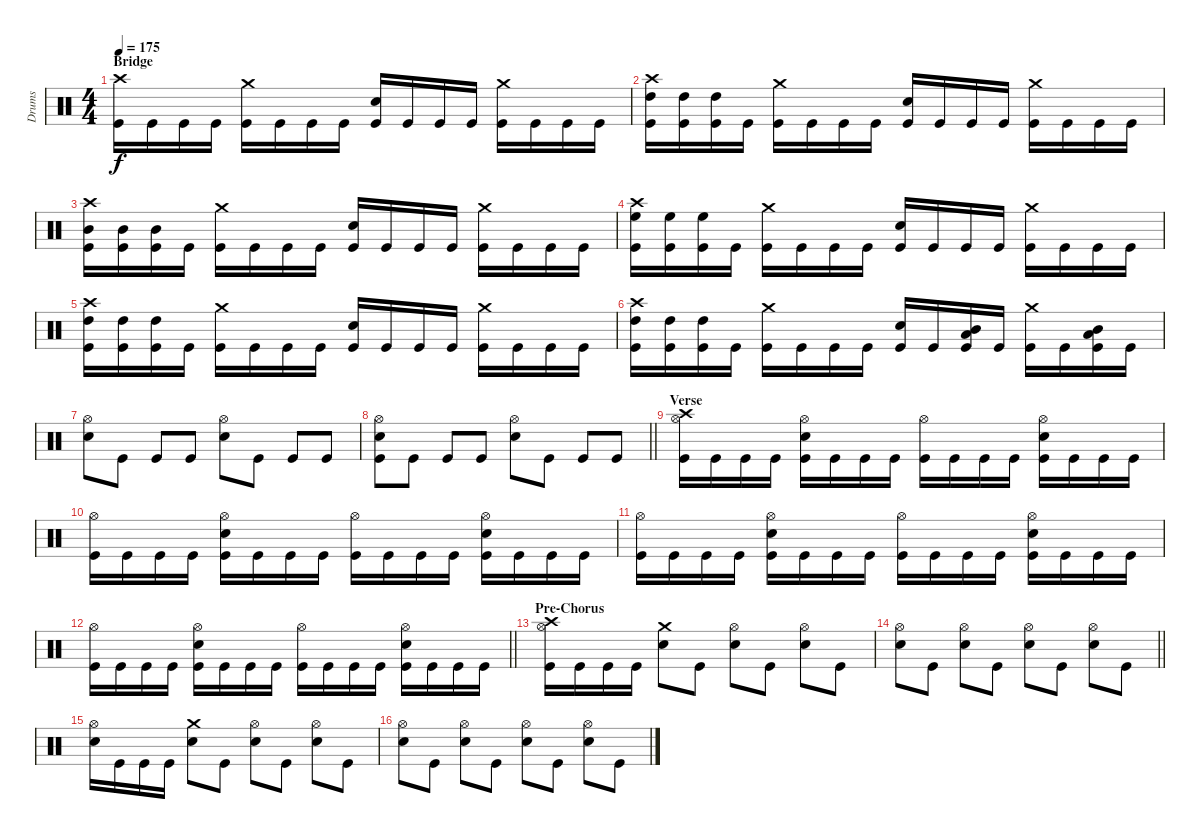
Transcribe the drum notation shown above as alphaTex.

\track ("Drums" "Drums") {instrument percussion}
\staff {score}
\articulation defaults
\ts (4 4)
\section ("" "Bridge")
\tempo 175
\clef neutral
\ks c
("Crash high (hit)" "Kick (hit)").16{dy f} "Kick (hit)".16 "Kick (hit)".16 "Kick (hit)".16 ("Crash medium (hit)" "Kick (hit)").16 "Kick (hit)".16 "Kick (hit)".16 "Kick (hit)".16 ("Electric Snare (hit)" "Kick (hit)").16 "Kick (hit)".16 "Kick (hit)".16 "Kick (hit)".16 ("Crash medium (hit)" "Kick (hit)").16 "Kick (hit)".16 "Kick (hit)".16 "Kick (hit)".16 |
("Crash high (hit)" "High Tom (hit)" "Kick (hit)").16 ("High Tom (hit)" "Kick (hit)").16 ("High Tom (hit)" "Kick (hit)").16 "Kick (hit)".16 ("Crash medium (hit)" "Kick (hit)").16 "Kick (hit)".16 "Kick (hit)".16 "Kick (hit)".16 ("Electric Snare (hit)" "Kick (hit)").16 "Kick (hit)".16 "Kick (hit)".16 "Kick (hit)".16 ("Crash medium (hit)" "Kick (hit)").16 "Kick (hit)".16 "Kick (hit)".16 "Kick (hit)".16 |
("Crash high (hit)" "Mid Tom (hit)" "Kick (hit)").16 ("Mid Tom (hit)" "Kick (hit)").16 ("Mid Tom (hit)" "Kick (hit)").16 "Kick (hit)".16 ("Crash medium (hit)" "Kick (hit)").16 "Kick (hit)".16 "Kick (hit)".16 "Kick (hit)".16 ("Electric Snare (hit)" "Kick (hit)").16 "Kick (hit)".16 "Kick (hit)".16 "Kick (hit)".16 ("Crash medium (hit)" "Kick (hit)").16 "Kick (hit)".16 "Kick (hit)".16 "Kick (hit)".16 |
("Crash high (hit)" "High Floor Tom (hit)" "Kick (hit)").16 ("High Floor Tom (hit)" "Kick (hit)").16 ("High Floor Tom (hit)" "Kick (hit)").16 "Kick (hit)".16 ("Crash medium (hit)" "Kick (hit)").16 "Kick (hit)".16 "Kick (hit)".16 "Kick (hit)".16 ("Electric Snare (hit)" "Kick (hit)").16 "Kick (hit)".16 "Kick (hit)".16 "Kick (hit)".16 ("Crash medium (hit)" "Kick (hit)").16 "Kick (hit)".16 "Kick (hit)".16 "Kick (hit)".16 |
("Crash high (hit)" "High Tom (hit)" "Kick (hit)").16 ("High Tom (hit)" "Kick (hit)").16 ("High Tom (hit)" "Kick (hit)").16 "Kick (hit)".16 ("Crash medium (hit)" "Kick (hit)").16 "Kick (hit)".16 "Kick (hit)".16 "Kick (hit)".16 ("Electric Snare (hit)" "Kick (hit)").16 "Kick (hit)".16 "Kick (hit)".16 "Kick (hit)".16 ("Crash medium (hit)" "Kick (hit)").16 "Kick (hit)".16 "Kick (hit)".16 "Kick (hit)".16 |
("Crash high (hit)" "High Tom (hit)" "Kick (hit)").16 ("High Tom (hit)" "Kick (hit)").16 ("High Tom (hit)" "Kick (hit)").16 "Kick (hit)".16 ("Crash medium (hit)" "Kick (hit)").16 "Kick (hit)".16 "Kick (hit)".16 "Kick (hit)".16 ("Electric Snare (hit)" "Kick (hit)").16 "Kick (hit)".16 ("Mid Tom (hit)" "Low Tom (hit)" "Kick (hit)").16 "Kick (hit)".16 ("Crash medium (hit)" "Kick (hit)").16 "Kick (hit)".16 ("Mid Tom (hit)" "Low Tom (hit)" "Kick (hit)").16 "Kick (hit)".16 |
("Hi-Hat (open)" "Electric Snare (hit)").8 "Kick (hit)".8 "Kick (hit)".8 "Kick (hit)".8 ("Hi-Hat (open)" "Electric Snare (hit)").8 "Kick (hit)".8 "Kick (hit)".8 "Kick (hit)".8 |
\barLineRight lightlight
("Hi-Hat (open)" "Electric Snare (hit)" "Kick (hit)").8 "Kick (hit)".8 "Kick (hit)".8 "Kick (hit)".8 ("Hi-Hat (open)" "Electric Snare (hit)").8 "Kick (hit)".8 "Kick (hit)".8 "Kick (hit)".8 |
\section ("" "Verse")
("Crash high (hit)" "Hi-Hat (open)" "Kick (hit)").16 "Kick (hit)".16 "Kick (hit)".16 "Kick (hit)".16 ("Hi-Hat (open)" "Electric Snare (hit)" "Kick (hit)").16 "Kick (hit)".16 "Kick (hit)".16 "Kick (hit)".16 ("Hi-Hat (open)" "Kick (hit)").16 "Kick (hit)".16 "Kick (hit)".16 "Kick (hit)".16 ("Hi-Hat (open)" "Electric Snare (hit)" "Kick (hit)").16 "Kick (hit)".16 "Kick (hit)".16 "Kick (hit)".16 |
("Hi-Hat (open)" "Kick (hit)").16 "Kick (hit)".16 "Kick (hit)".16 "Kick (hit)".16 ("Hi-Hat (open)" "Electric Snare (hit)" "Kick (hit)").16 "Kick (hit)".16 "Kick (hit)".16 "Kick (hit)".16 ("Hi-Hat (open)" "Kick (hit)").16 "Kick (hit)".16 "Kick (hit)".16 "Kick (hit)".16 ("Hi-Hat (open)" "Electric Snare (hit)" "Kick (hit)").16 "Kick (hit)".16 "Kick (hit)".16 "Kick (hit)".16 |
("Hi-Hat (open)" "Kick (hit)").16 "Kick (hit)".16 "Kick (hit)".16 "Kick (hit)".16 ("Hi-Hat (open)" "Electric Snare (hit)" "Kick (hit)").16 "Kick (hit)".16 "Kick (hit)".16 "Kick (hit)".16 ("Hi-Hat (open)" "Kick (hit)").16 "Kick (hit)".16 "Kick (hit)".16 "Kick (hit)".16 ("Hi-Hat (open)" "Electric Snare (hit)" "Kick (hit)").16 "Kick (hit)".16 "Kick (hit)".16 "Kick (hit)".16 |
\barLineRight lightlight
("Hi-Hat (open)" "Kick (hit)").16 "Kick (hit)".16 "Kick (hit)".16 "Kick (hit)".16 ("Hi-Hat (open)" "Electric Snare (hit)" "Kick (hit)").16 "Kick (hit)".16 "Kick (hit)".16 "Kick (hit)".16 ("Hi-Hat (open)" "Kick (hit)").16 "Kick (hit)".16 "Kick (hit)".16 "Kick (hit)".16 ("Hi-Hat (open)" "Electric Snare (hit)" "Kick (hit)").16 "Kick (hit)".16 "Kick (hit)".16 "Kick (hit)".16 |
\section ("" "Pre-Chorus")
("Crash high (hit)" "Hi-Hat (open)" "Kick (hit)").16 "Kick (hit)".16 "Kick (hit)".16 "Kick (hit)".16 ("Crash medium (hit)" "Electric Snare (hit)").8 "Kick (hit)".8 ("Hi-Hat (open)" "Electric Snare (hit)").8 "Kick (hit)".8 ("Hi-Hat (open)" "Electric Snare (hit)").8 "Kick (hit)".8 |
\barLineRight lightlight
("Hi-Hat (open)" "Electric Snare (hit)").8 "Kick (hit)".8 ("Hi-Hat (open)" "Electric Snare (hit)").8 "Kick (hit)".8 ("Hi-Hat (open)" "Electric Snare (hit)").8 "Kick (hit)".8 ("Hi-Hat (open)" "Electric Snare (hit)").8 "Kick (hit)".8 |
("Hi-Hat (open)" "Electric Snare (hit)").16 "Kick (hit)".16 "Kick (hit)".16 "Kick (hit)".16 ("Crash medium (hit)" "Electric Snare (hit)").8 "Kick (hit)".8 ("Hi-Hat (open)" "Electric Snare (hit)").8 "Kick (hit)".8 ("Hi-Hat (open)" "Electric Snare (hit)").8 "Kick (hit)".8 |
("Hi-Hat (open)" "Electric Snare (hit)").8 "Kick (hit)".8 ("Hi-Hat (open)" "Electric Snare (hit)").8 "Kick (hit)".8 ("Hi-Hat (open)" "Electric Snare (hit)").8 "Kick (hit)".8 ("Hi-Hat (open)" "Electric Snare (hit)").8 "Kick (hit)".8
